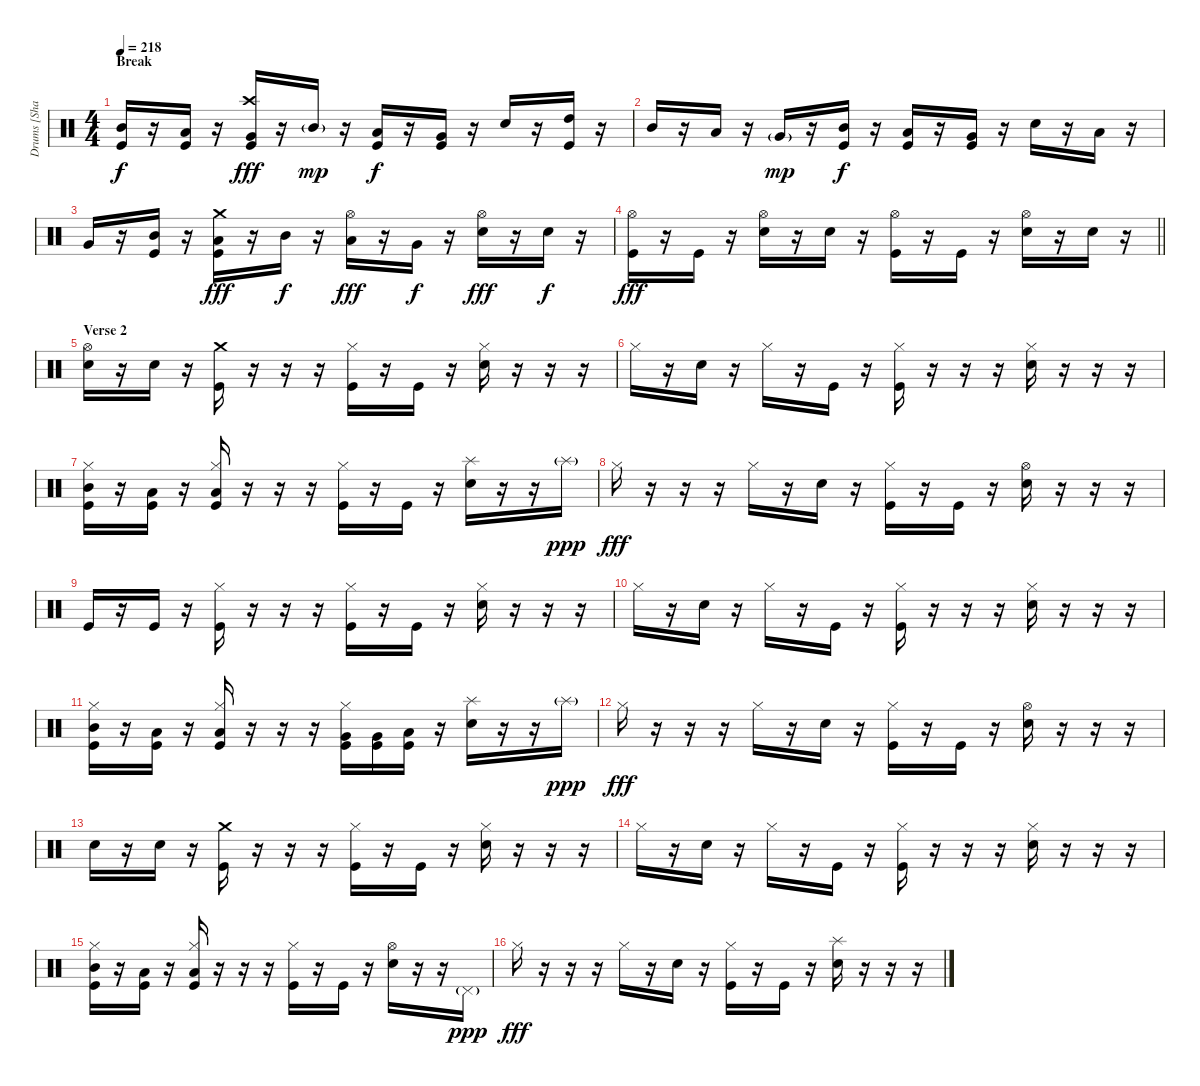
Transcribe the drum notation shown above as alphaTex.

\track ("Drums [Shannon Larkin]" "Drums [Sha") {instrument percussion}
\staff {score}
\articulation defaults
\ts (4 4)
\section ("" "Break")
\tempo 218
\clef neutral
\ks c
("Mid Tom (hit)" "Kick (hit)").16{dy f} r.16 ("Low Tom (hit)" "Kick (hit)").16 r.16 ("Crash high (hit)" "Very Low Tom (hit)" "Kick (hit)").16{dy fff} r.16 "Mid Tom (hit)"{g}.16{dy mp} r.16 ("Low Tom (hit)" "Kick (hit)").16{dy f} r.16 ("Very Low Tom (hit)" "Kick (hit)").16 r.16 "Electric Snare (hit)".16 r.16 ("High Tom (hit)" "Kick (hit)").16 r.16 |
"Mid Tom (hit)".16 r.16 "Low Tom (hit)".16 r.16 "Very Low Tom (hit)"{g}.16{dy mp} r.16 ("Mid Tom (hit)" "Kick (hit)").16{dy f} r.16 ("Low Tom (hit)" "Kick (hit)").16 r.16 ("Very Low Tom (hit)" "Kick (hit)").16 r.16 "Electric Snare (hit)".16 r.16 "Low Tom (hit)".16 r.16 |
"Very Low Tom (hit)".16 r.16 ("Mid Tom (hit)" "Kick (hit)").16 r.16 ("Crash medium (hit)" "Low Tom (hit)" "Kick (hit)").16{dy fff} r.16 "Mid Tom (hit)".16{dy f} r.16 ("Hi-Hat (open)" "Low Tom (hit)").16{dy fff} r.16 "Very Low Tom (hit)".16{dy f} r.16 ("Hi-Hat (open)" "Electric Snare (hit)").16{dy fff} r.16 "Electric Snare (hit)".16{dy f} r.16 |
\barLineRight lightlight
("Hi-Hat (open)" "Kick (hit)").16{dy fff} r.16 "Kick (hit)".16 r.16 ("Hi-Hat (open)" "Electric Snare (hit)").16 r.16 "Electric Snare (hit)".16 r.16 ("Hi-Hat (open)" "Kick (hit)").16 r.16 "Kick (hit)".16 r.16 ("Hi-Hat (open)" "Electric Snare (hit)").16 r.16 "Electric Snare (hit)".16 r.16 |
\section ("" "Verse 2 ")
("Hi-Hat (open)" "Electric Snare (hit)").16 r.16 "Electric Snare (hit)".16 r.16 ("Crash medium (hit)" "Kick (hit)").16 r.16 r.16 r.16 ("Hi-Hat (closed)" "Kick (hit)").16 r.16 "Kick (hit)".16 r.16 ("Hi-Hat (closed)" "Electric Snare (hit)").16 r.16 r.16 r.16 |
"Hi-Hat (closed)".16 r.16 "Electric Snare (hit)".16 r.16 "Hi-Hat (closed)".16 r.16 "Kick (hit)".16 r.16 ("Hi-Hat (closed)" "Kick (hit)").16 r.16 r.16 r.16 ("Hi-Hat (closed)" "Electric Snare (hit)").16 r.16 r.16 r.16 |
("Hi-Hat (closed)" "Mid Tom (hit)" "Kick (hit)").16 r.16 ("Low Tom (hit)" "Kick (hit)").16 r.16 ("Hi-Hat (closed)" "Low Floor Tom (hit)" "Kick (hit)").16 r.16 r.16 r.16 ("Hi-Hat (closed)" "Kick (hit)").16 r.16 "Kick (hit)".16 r.16 ("Splash (hit)" "Electric Snare (hit)").16 r.16 r.16 "Splash (hit)"{g}.16{dy ppp} |
"Hi-Hat (closed)".16{dy fff} r.16 r.16 r.16 "Hi-Hat (closed)".16 r.16 "Electric Snare (hit)".16 r.16 ("Hi-Hat (closed)" "Kick (hit)").16 r.16 "Kick (hit)".16 r.16 ("Hi-Hat (open)" "Electric Snare (hit)").16 r.16 r.16 r.16 |
"Kick (hit)".16 r.16 "Kick (hit)".16 r.16 ("Hi-Hat (closed)" "Kick (hit)").16 r.16 r.16 r.16 ("Hi-Hat (closed)" "Kick (hit)").16 r.16 "Kick (hit)".16 r.16 ("Hi-Hat (closed)" "Electric Snare (hit)").16 r.16 r.16 r.16 |
"Hi-Hat (closed)".16 r.16 "Electric Snare (hit)".16 r.16 "Hi-Hat (closed)".16 r.16 "Kick (hit)".16 r.16 ("Hi-Hat (closed)" "Kick (hit)").16 r.16 r.16 r.16 ("Hi-Hat (closed)" "Electric Snare (hit)").16 r.16 r.16 r.16 |
("Hi-Hat (closed)" "Mid Tom (hit)" "Kick (hit)").16 r.16 ("Low Tom (hit)" "Kick (hit)").16 r.16 ("Hi-Hat (closed)" "Low Floor Tom (hit)" "Kick (hit)").16 r.16 r.16 r.16 ("Hi-Hat (closed)" "Very Low Tom (hit)" "Kick (hit)").16 ("Very Low Tom (hit)" "Kick (hit)").16 ("Low Floor Tom (hit)" "Kick (hit)").16 r.16 ("Splash (hit)" "Electric Snare (hit)").16 r.16 r.16 "Splash (hit)"{g}.16{dy ppp} |
"Hi-Hat (closed)".16{dy fff} r.16 r.16 r.16 "Hi-Hat (closed)".16 r.16 "Electric Snare (hit)".16 r.16 ("Hi-Hat (closed)" "Kick (hit)").16 r.16 "Kick (hit)".16 r.16 ("Hi-Hat (open)" "Electric Snare (hit)").16 r.16 r.16 r.16 |
"Electric Snare (hit)".16 r.16 "Electric Snare (hit)".16 r.16 ("Crash medium (hit)" "Kick (hit)").16 r.16 r.16 r.16 ("Hi-Hat (closed)" "Kick (hit)").16 r.16 "Kick (hit)".16 r.16 ("Hi-Hat (closed)" "Electric Snare (hit)").16 r.16 r.16 r.16 |
"Hi-Hat (closed)".16 r.16 "Electric Snare (hit)".16 r.16 "Hi-Hat (closed)".16 r.16 "Kick (hit)".16 r.16 ("Hi-Hat (closed)" "Kick (hit)").16 r.16 r.16 r.16 ("Hi-Hat (closed)" "Electric Snare (hit)").16 r.16 r.16 r.16 |
("Hi-Hat (closed)" "Mid Tom (hit)" "Kick (hit)").16 r.16 ("Low Tom (hit)" "Kick (hit)").16 r.16 ("Hi-Hat (closed)" "Low Floor Tom (hit)" "Kick (hit)").16 r.16 r.16 r.16 ("Hi-Hat (closed)" "Kick (hit)").16 r.16 "Kick (hit)".16 r.16 ("Hi-Hat (open)" "Electric Snare (hit)").16 r.16 r.16 "Pedal Hi-Hat (hit)"{g}.16{dy ppp} |
"Hi-Hat (closed)".16{dy fff} r.16 r.16 r.16 "Hi-Hat (closed)".16 r.16 "Electric Snare (hit)".16 r.16 ("Hi-Hat (closed)" "Kick (hit)").16 r.16 "Kick (hit)".16 r.16 ("Splash (hit)" "Electric Snare (hit)").16 r.16 r.16 r.16
